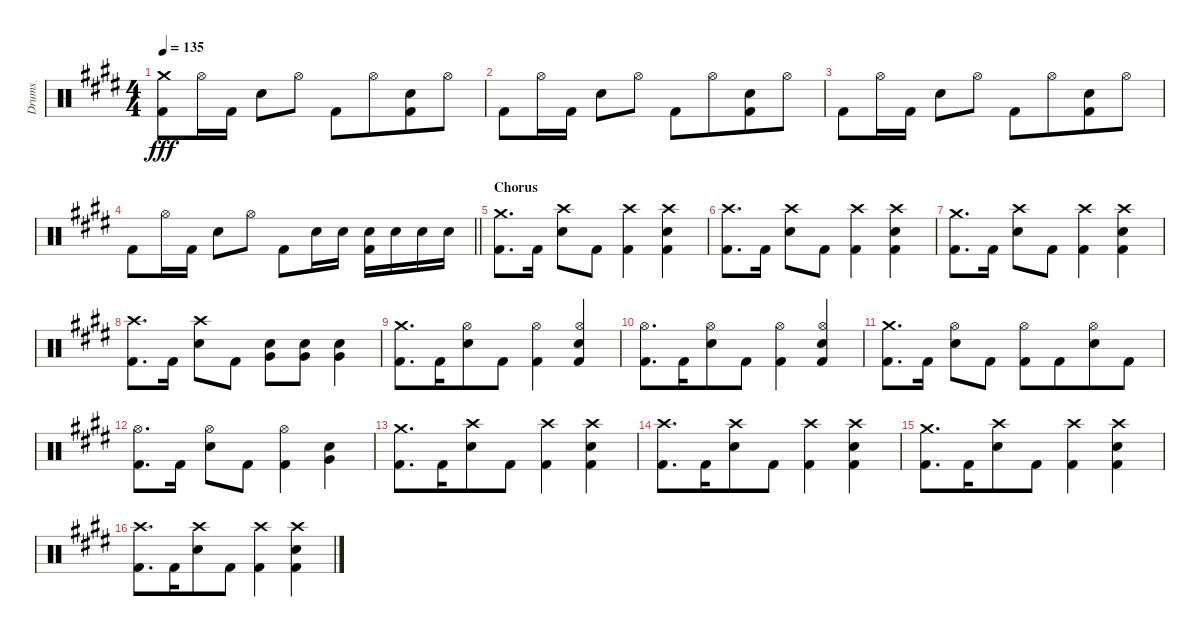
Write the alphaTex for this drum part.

\track ("Drums" "Drums") {instrument percussion}
\staff {score}
\articulation defaults
\ts (4 4)
\tempo 135
\clef neutral
\ks c#minor
("Kick (hit) 2" "Crash medium (hit)").8{dy fff} "Hi-Hat (open)".16 "Kick (hit) 2".16 "Snare (hit) 2".8 "Hi-Hat (open)".8 "Kick (hit) 2".8 "Hi-Hat (open)".8{beam merge} ("Kick (hit) 2" "Snare (hit) 2").8 "Hi-Hat (open)".8 |
"Kick (hit) 2".8 "Hi-Hat (open)".16 "Kick (hit) 2".16 "Snare (hit) 2".8 "Hi-Hat (open)".8 "Kick (hit) 2".8 "Hi-Hat (open)".8{beam merge} ("Kick (hit) 2" "Snare (hit) 2").8 "Hi-Hat (open)".8 |
"Kick (hit) 2".8 "Hi-Hat (open)".16 "Kick (hit) 2".16 "Snare (hit) 2".8 "Hi-Hat (open)".8 "Kick (hit) 2".8 "Hi-Hat (open)".8{beam merge} ("Kick (hit) 2" "Snare (hit) 2").8 "Hi-Hat (open)".8 |
\barLineRight lightlight "Kick (hit) 2".8 "Hi-Hat (open)".16 "Kick (hit) 2".16 "Snare (hit) 2".8 "Hi-Hat (open)".8 "Kick (hit) 2".8{beam Down} "Snare (hit) 2".16{beam Down} "Snare (hit) 2".16{beam Down}
("Kick (hit) 2" "Snare (hit) 2").16{beam Down} "Snare (hit) 2".16{beam Down} "Snare (hit) 2".16{beam Down} "Snare (hit) 2".16{beam Down} |
\section ("" "Chorus")
("Crash medium (hit)" "Kick (hit) 2").8{d} "Kick (hit) 2".16{beam split} ("Crash high (hit)" "Snare (hit) 2").8{beam merge} "Kick (hit) 2".8 ("Crash high (hit)" "Kick (hit) 2").4{beam merge} ("Crash high (hit)" "Snare (hit) 2" "Kick (hit) 2").4 |
("Crash high (hit)" "Kick (hit) 2").8{d} "Kick (hit) 2".16{beam split} ("Crash high (hit)" "Snare (hit) 2").8{beam merge} "Kick (hit) 2".8 ("Crash high (hit)" "Kick (hit) 2").4{beam merge} ("Crash high (hit)" "Snare (hit) 2" "Kick (hit) 2").4 |
("Crash medium (hit)" "Kick (hit) 2").8{d} "Kick (hit) 2".16{beam split} ("Crash high (hit)" "Snare (hit) 2").8{beam merge} "Kick (hit) 2".8 ("Crash high (hit)" "Kick (hit) 2").4{beam merge} ("Crash high (hit)" "Snare (hit) 2" "Kick (hit) 2").4 |
("Crash high (hit)" "Kick (hit) 2").8{d} "Kick (hit) 2".16{beam split} ("Crash high (hit)" "Snare (hit) 2").8 "Kick (hit) 2".8 ("Very Low Tom (hit)" "Snare (hit) 2").8{beam Down} ("Very Low Tom (hit)" "Snare (hit) 2").8{beam Down} ("Very Low Tom (hit)" "Snare (hit) 2").4{beam Down} |
("Kick (hit) 2" "Crash medium (hit)").8{d} "Kick (hit) 2".16{beam merge} ("Hi-Hat (open)" "Snare (hit) 2").8 "Kick (hit) 2".8 ("Kick (hit) 2" "Hi-Hat (open)").4{beam Down} ("Kick (hit) 2" "Hi-Hat (open)" "Snare (hit) 2").4 |
("Kick (hit) 2" "Hi-Hat (open)").8{d} "Kick (hit) 2".16{beam merge} ("Hi-Hat (open)" "Snare (hit) 2").8 "Kick (hit) 2".8 ("Kick (hit) 2" "Hi-Hat (open)").4{beam Down} ("Kick (hit) 2" "Hi-Hat (open)" "Snare (hit) 2").4 |
("Kick (hit) 2" "Crash medium (hit)").8{d} "Kick (hit) 2".16{beam split} ("Hi-Hat (open)" "Snare (hit) 2").8 "Kick (hit) 2".8{beam split} ("Kick (hit) 2" "Hi-Hat (open)").8 "Kick (hit) 2".8{beam merge} ("Hi-Hat (open)" "Snare (hit) 2").8 "Kick (hit) 2".8 |
("Kick (hit) 2" "Hi-Hat (open)").8{d} "Kick (hit) 2".16{beam split} ("Hi-Hat (open)" "Snare (hit) 2").8 "Kick (hit) 2".8 ("Kick (hit) 2" "Hi-Hat (open)").4{beam merge} ("Very Low Tom (hit)" "Snare (hit) 2").4{beam Down} |
("Kick (hit) 2" "Crash medium (hit)").8{d} "Kick (hit) 2".16{beam merge} ("Crash high (hit)" "Snare (hit) 2").8 "Kick (hit) 2".8 ("Kick (hit) 2" "Crash high (hit)").4{beam Down} ("Kick (hit) 2" "Crash high (hit)" "Snare (hit) 2").4 |
("Kick (hit) 2" "Crash high (hit)").8{d} "Kick (hit) 2".16{beam merge} ("Crash high (hit)" "Snare (hit) 2").8 "Kick (hit) 2".8 ("Kick (hit) 2" "Crash high (hit)").4{beam Down} ("Kick (hit) 2" "Crash high (hit)" "Snare (hit) 2").4 |
("Kick (hit) 2" "Crash medium (hit)").8{d} "Kick (hit) 2".16{beam merge} ("Crash high (hit)" "Snare (hit) 2").8 "Kick (hit) 2".8 ("Kick (hit) 2" "Crash high (hit)").4{beam Down} ("Kick (hit) 2" "Crash high (hit)" "Snare (hit) 2").4 |
("Kick (hit) 2" "Crash high (hit)").8{d} "Kick (hit) 2".16{beam merge} ("Crash high (hit)" "Snare (hit) 2").8 "Kick (hit) 2".8 ("Kick (hit) 2" "Crash high (hit)").4{beam Down} ("Kick (hit) 2" "Crash high (hit)" "Snare (hit) 2").4
